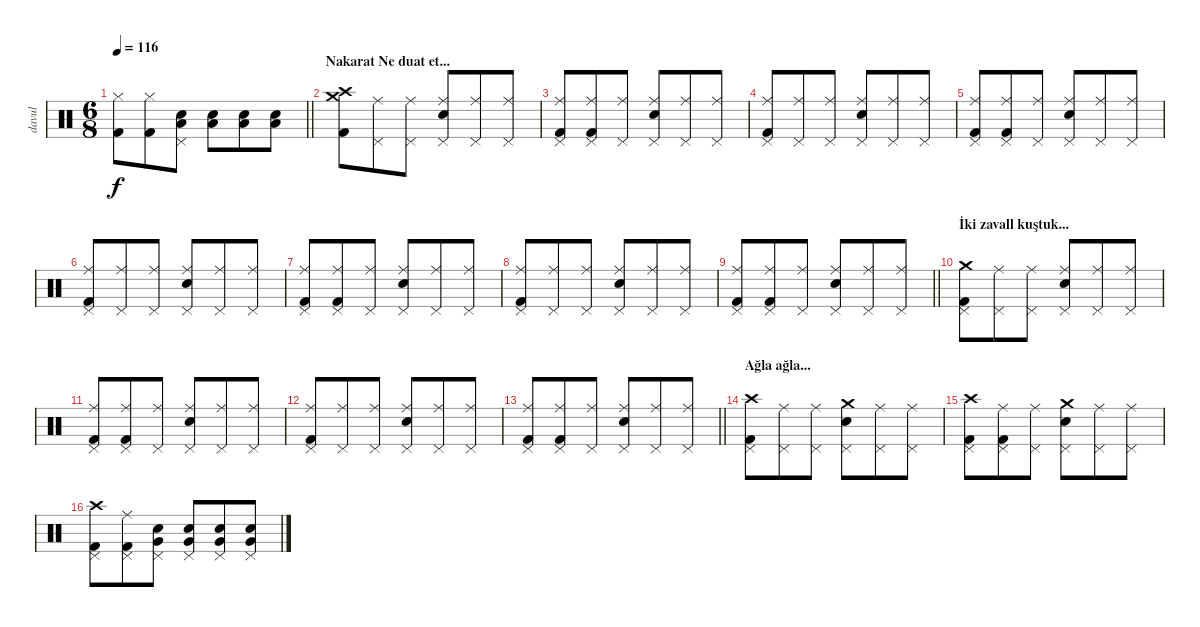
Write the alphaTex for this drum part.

\track ("davul" "davul") {instrument percussion}
\staff {score}
\articulation defaults
\ts (6 8)
\tempo 116
\clef neutral
\barLineRight lightlight
\ks c
("Hi-Hat (closed)" "Kick (hit) 2").8{dy f} ("Hi-Hat (closed)" "Kick (hit) 2").8 ("Pedal Hi-Hat (hit)" "Electric Snare (hit)" "Low Floor Tom (hit)").8 ("Electric Snare (hit)" "Low Floor Tom (hit)").8 ("Electric Snare (hit)" "Low Floor Tom (hit)").8 ("Electric Snare (hit)" "Low Floor Tom (hit)").8 |
\section ("" "Nakarat Ne duat et...")
("Crash high (hit)" "Crash medium (hit)" "Kick (hit) 2").8 ("Ride (middle)" "Pedal Hi-Hat (hit)").8 ("Ride (middle)" "Pedal Hi-Hat (hit)").8 ("Ride (middle)" "Electric Snare (hit)" "Pedal Hi-Hat (hit)").8 ("Ride (middle)" "Pedal Hi-Hat (hit)").8 ("Ride (middle)" "Pedal Hi-Hat (hit)").8 |
("Ride (middle)" "Kick (hit) 2" "Pedal Hi-Hat (hit)").8 ("Ride (middle)" "Kick (hit) 2" "Pedal Hi-Hat (hit)").8 ("Ride (middle)" "Pedal Hi-Hat (hit)").8 ("Ride (middle)" "Electric Snare (hit)" "Pedal Hi-Hat (hit)").8 ("Ride (middle)" "Pedal Hi-Hat (hit)").8 ("Ride (middle)" "Pedal Hi-Hat (hit)").8 |
("Ride (middle)" "Kick (hit) 2" "Pedal Hi-Hat (hit)").8 ("Ride (middle)" "Pedal Hi-Hat (hit)").8 ("Ride (middle)" "Pedal Hi-Hat (hit)").8 ("Ride (middle)" "Electric Snare (hit)" "Pedal Hi-Hat (hit)").8 ("Ride (middle)" "Pedal Hi-Hat (hit)").8 ("Ride (middle)" "Pedal Hi-Hat (hit)").8 |
("Ride (middle)" "Kick (hit) 2" "Pedal Hi-Hat (hit)").8 ("Ride (middle)" "Kick (hit) 2" "Pedal Hi-Hat (hit)").8 ("Ride (middle)" "Pedal Hi-Hat (hit)").8 ("Ride (middle)" "Electric Snare (hit)" "Pedal Hi-Hat (hit)").8 ("Ride (middle)" "Pedal Hi-Hat (hit)").8 ("Ride (middle)" "Pedal Hi-Hat (hit)").8 |
("Ride (middle)" "Kick (hit) 2" "Pedal Hi-Hat (hit)").8 ("Ride (middle)" "Pedal Hi-Hat (hit)").8 ("Ride (middle)" "Pedal Hi-Hat (hit)").8 ("Ride (middle)" "Electric Snare (hit)" "Pedal Hi-Hat (hit)").8 ("Ride (middle)" "Pedal Hi-Hat (hit)").8 ("Ride (middle)" "Pedal Hi-Hat (hit)").8 |
("Ride (middle)" "Kick (hit) 2" "Pedal Hi-Hat (hit)").8 ("Ride (middle)" "Kick (hit) 2" "Pedal Hi-Hat (hit)").8 ("Ride (middle)" "Pedal Hi-Hat (hit)").8 ("Ride (middle)" "Electric Snare (hit)" "Pedal Hi-Hat (hit)").8 ("Ride (middle)" "Pedal Hi-Hat (hit)").8 ("Ride (middle)" "Pedal Hi-Hat (hit)").8 |
("Ride (middle)" "Kick (hit) 2" "Pedal Hi-Hat (hit)").8 ("Ride (middle)" "Pedal Hi-Hat (hit)").8 ("Ride (middle)" "Pedal Hi-Hat (hit)").8 ("Ride (middle)" "Electric Snare (hit)" "Pedal Hi-Hat (hit)").8 ("Ride (middle)" "Pedal Hi-Hat (hit)").8 ("Ride (middle)" "Pedal Hi-Hat (hit)").8 |
\barLineRight lightlight
("Ride (middle)" "Kick (hit) 2" "Pedal Hi-Hat (hit)").8 ("Ride (middle)" "Kick (hit) 2" "Pedal Hi-Hat (hit)").8 ("Ride (middle)" "Pedal Hi-Hat (hit)").8 ("Ride (middle)" "Electric Snare (hit)" "Pedal Hi-Hat (hit)").8 ("Ride (middle)" "Pedal Hi-Hat (hit)").8 ("Ride (middle)" "Pedal Hi-Hat (hit)").8 |
\section ("" "İki zavall kuştuk...")
("Crash medium (hit)" "Kick (hit) 2" "Pedal Hi-Hat (hit)").8 ("Ride (middle)" "Pedal Hi-Hat (hit)").8 ("Ride (middle)" "Pedal Hi-Hat (hit)").8 ("Ride (middle)" "Electric Snare (hit)" "Pedal Hi-Hat (hit)").8 ("Ride (middle)" "Pedal Hi-Hat (hit)").8 ("Ride (middle)" "Pedal Hi-Hat (hit)").8 |
("Ride (middle)" "Kick (hit) 2" "Pedal Hi-Hat (hit)").8 ("Ride (middle)" "Kick (hit) 2" "Pedal Hi-Hat (hit)").8 ("Ride (middle)" "Pedal Hi-Hat (hit)").8 ("Ride (middle)" "Electric Snare (hit)" "Pedal Hi-Hat (hit)").8 ("Ride (middle)" "Pedal Hi-Hat (hit)").8 ("Ride (middle)" "Pedal Hi-Hat (hit)").8 |
("Ride (middle)" "Kick (hit) 2" "Pedal Hi-Hat (hit)").8 ("Ride (middle)" "Pedal Hi-Hat (hit)").8 ("Ride (middle)" "Pedal Hi-Hat (hit)").8 ("Ride (middle)" "Electric Snare (hit)" "Pedal Hi-Hat (hit)").8 ("Ride (middle)" "Pedal Hi-Hat (hit)").8 ("Ride (middle)" "Pedal Hi-Hat (hit)").8 |
\barLineRight lightlight
("Ride (middle)" "Kick (hit) 2" "Pedal Hi-Hat (hit)").8 ("Ride (middle)" "Kick (hit) 2" "Pedal Hi-Hat (hit)").8 ("Ride (middle)" "Pedal Hi-Hat (hit)").8 ("Ride (middle)" "Electric Snare (hit)" "Pedal Hi-Hat (hit)").8 ("Ride (middle)" "Pedal Hi-Hat (hit)").8 ("Ride (middle)" "Pedal Hi-Hat (hit)").8 |
\section ("" "Ağla ağla...")
("Crash high (hit)" "Kick (hit) 2" "Pedal Hi-Hat (hit)").8 ("Ride (middle)" "Pedal Hi-Hat (hit)").8 ("Ride (middle)" "Pedal Hi-Hat (hit)").8 ("Crash medium (hit)" "Electric Snare (hit)" "Pedal Hi-Hat (hit)").8 ("Ride (middle)" "Pedal Hi-Hat (hit)").8 ("Ride (middle)" "Pedal Hi-Hat (hit)").8 |
("Crash high (hit)" "Kick (hit) 2" "Pedal Hi-Hat (hit)").8 ("Ride (middle)" "Kick (hit) 2" "Pedal Hi-Hat (hit)").8 ("Ride (middle)" "Pedal Hi-Hat (hit)").8 ("Crash medium (hit)" "Electric Snare (hit)" "Pedal Hi-Hat (hit)").8 ("Ride (middle)" "Pedal Hi-Hat (hit)").8 ("Ride (middle)" "Pedal Hi-Hat (hit)").8 |
("Crash high (hit)" "Kick (hit) 2" "Pedal Hi-Hat (hit)").8 ("Ride (middle)" "Kick (hit) 2" "Pedal Hi-Hat (hit)").8 ("Very Low Tom (hit)" "Electric Snare (hit)" "Pedal Hi-Hat (hit)").8 ("Very Low Tom (hit)" "Electric Snare (hit)" "Pedal Hi-Hat (hit)").8 ("Very Low Tom (hit)" "Electric Snare (hit)" "Pedal Hi-Hat (hit)").8 ("Very Low Tom (hit)" "Electric Snare (hit)" "Pedal Hi-Hat (hit)").8
